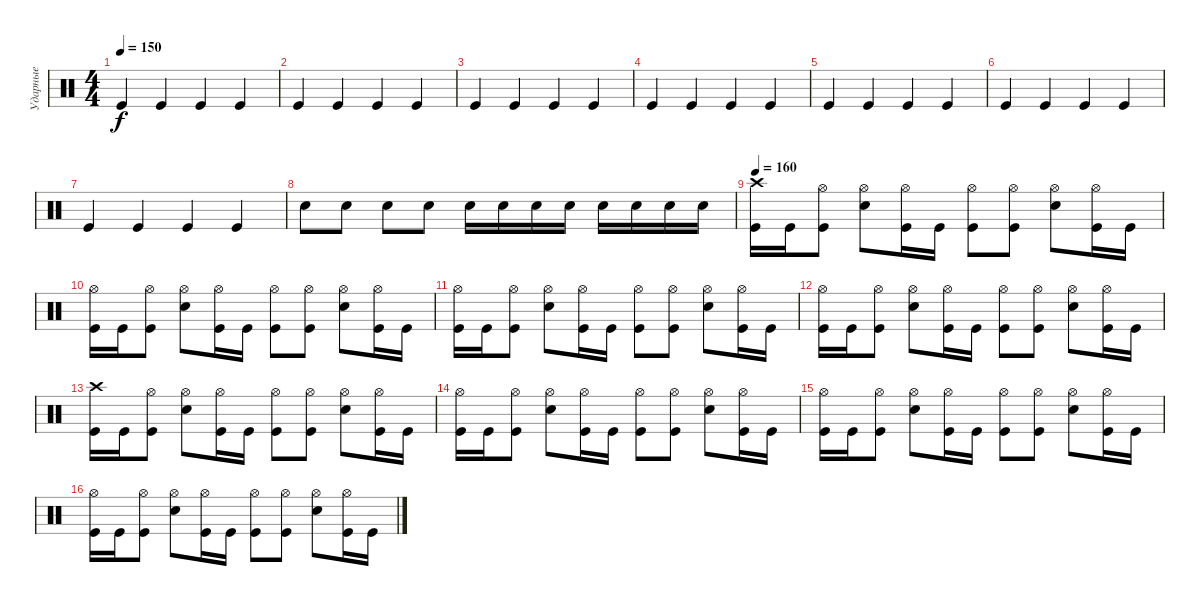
\track ("Ударные" "Ударные") {instrument percussion}
\staff {score}
\articulation defaults
\ts (4 4)
\tempo 150
\clef neutral
\ks c "Kick (hit)".4{dy f} "Kick (hit)".4 "Kick (hit)".4 "Kick (hit)".4
|
"Kick (hit)".4 "Kick (hit)".4 "Kick (hit)".4 "Kick (hit)".4 |
"Kick (hit)".4 "Kick (hit)".4 "Kick (hit)".4 "Kick (hit)".4 |
"Kick (hit)".4 "Kick (hit)".4 "Kick (hit)".4 "Kick (hit)".4 |
"Kick (hit)".4 "Kick (hit)".4 "Kick (hit)".4 "Kick (hit)".4 |
"Kick (hit)".4 "Kick (hit)".4 "Kick (hit)".4 "Kick (hit)".4 |
"Kick (hit)".4 "Kick (hit)".4 "Kick (hit)".4 "Kick (hit)".4 |
"Snare (hit) 2".8 "Snare (hit) 2".8 "Snare (hit) 2".8 "Snare (hit) 2".8 "Snare (hit) 2".16 "Snare (hit) 2".16 "Snare (hit) 2".16 "Snare (hit) 2".16 "Snare (hit) 2".16 "Snare (hit) 2".16 "Snare (hit) 2".16 "Snare (hit) 2".16 |
\tempo 160
("Crash high (hit)" "Kick (hit)").16 "Kick (hit)".16 ("Hi-Hat (open)" "Kick (hit)").8 ("Hi-Hat (open)" "Snare (hit) 2").8 ("Hi-Hat (open)" "Kick (hit)").16 "Kick (hit)".16 ("Hi-Hat (open)" "Kick (hit)").8 ("Hi-Hat (open)" "Kick (hit)").8 ("Hi-Hat (open)" "Snare (hit) 2").8 ("Hi-Hat (open)" "Kick (hit)").16 "Kick (hit)".16 |
("Hi-Hat (open)" "Kick (hit)").16 "Kick (hit)".16 ("Hi-Hat (open)" "Kick (hit)").8 ("Hi-Hat (open)" "Snare (hit) 2").8 ("Hi-Hat (open)" "Kick (hit)").16 "Kick (hit)".16 ("Hi-Hat (open)" "Kick (hit)").8 ("Hi-Hat (open)" "Kick (hit)").8 ("Hi-Hat (open)" "Snare (hit) 2").8 ("Hi-Hat (open)" "Kick (hit)").16 "Kick (hit)".16 |
("Hi-Hat (open)" "Kick (hit)").16 "Kick (hit)".16 ("Hi-Hat (open)" "Kick (hit)").8 ("Hi-Hat (open)" "Snare (hit) 2").8 ("Hi-Hat (open)" "Kick (hit)").16 "Kick (hit)".16 ("Hi-Hat (open)" "Kick (hit)").8 ("Hi-Hat (open)" "Kick (hit)").8 ("Hi-Hat (open)" "Snare (hit) 2").8 ("Hi-Hat (open)" "Kick (hit)").16 "Kick (hit)".16 |
("Hi-Hat (open)" "Kick (hit)").16 "Kick (hit)".16 ("Hi-Hat (open)" "Kick (hit)").8 ("Hi-Hat (open)" "Snare (hit) 2").8 ("Hi-Hat (open)" "Kick (hit)").16 "Kick (hit)".16 ("Hi-Hat (open)" "Kick (hit)").8 ("Hi-Hat (open)" "Kick (hit)").8 ("Hi-Hat (open)" "Snare (hit) 2").8 ("Hi-Hat (open)" "Kick (hit)").16 "Kick (hit)".16 |
("Crash high (hit)" "Kick (hit)").16 "Kick (hit)".16 ("Hi-Hat (open)" "Kick (hit)").8 ("Hi-Hat (open)" "Snare (hit) 2").8 ("Hi-Hat (open)" "Kick (hit)").16 "Kick (hit)".16 ("Hi-Hat (open)" "Kick (hit)").8 ("Hi-Hat (open)" "Kick (hit)").8 ("Hi-Hat (open)" "Snare (hit) 2").8 ("Hi-Hat (open)" "Kick (hit)").16 "Kick (hit)".16 |
("Hi-Hat (open)" "Kick (hit)").16 "Kick (hit)".16 ("Hi-Hat (open)" "Kick (hit)").8 ("Hi-Hat (open)" "Snare (hit) 2").8 ("Hi-Hat (open)" "Kick (hit)").16 "Kick (hit)".16 ("Hi-Hat (open)" "Kick (hit)").8 ("Hi-Hat (open)" "Kick (hit)").8 ("Hi-Hat (open)" "Snare (hit) 2").8 ("Hi-Hat (open)" "Kick (hit)").16 "Kick (hit)".16 |
("Hi-Hat (open)" "Kick (hit)").16 "Kick (hit)".16 ("Hi-Hat (open)" "Kick (hit)").8 ("Hi-Hat (open)" "Snare (hit) 2").8 ("Hi-Hat (open)" "Kick (hit)").16 "Kick (hit)".16 ("Hi-Hat (open)" "Kick (hit)").8 ("Hi-Hat (open)" "Kick (hit)").8 ("Hi-Hat (open)" "Snare (hit) 2").8 ("Hi-Hat (open)" "Kick (hit)").16 "Kick (hit)".16 |
("Hi-Hat (open)" "Kick (hit)").16 "Kick (hit)".16 ("Hi-Hat (open)" "Kick (hit)").8 ("Hi-Hat (open)" "Snare (hit) 2").8 ("Hi-Hat (open)" "Kick (hit)").16 "Kick (hit)".16 ("Hi-Hat (open)" "Kick (hit)").8 ("Hi-Hat (open)" "Kick (hit)").8 ("Hi-Hat (open)" "Snare (hit) 2").8 ("Hi-Hat (open)" "Kick (hit)").16 "Kick (hit)".16
